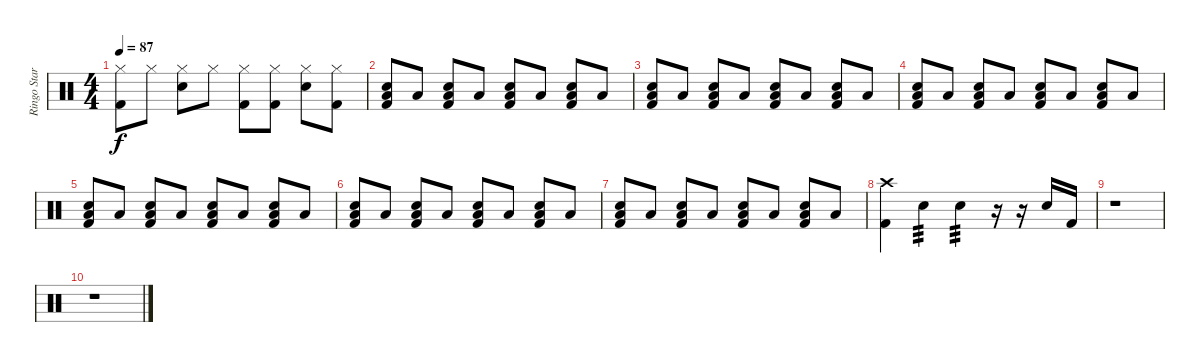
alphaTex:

\track ("Ringo Starr (Batterie)" "Ringo Star") {instrument percussion}
\staff {score}
\articulation defaults
\ts (4 4)
\tempo 87
\clef neutral
\ks c
("Hi-Hat (closed)" "Kick (hit) 2").8{dy f} "Hi-Hat (closed)".8 ("Hi-Hat (closed)" "Snare (hit) 2").8 "Hi-Hat (closed)".8 ("Hi-Hat (closed)" "Kick (hit) 2").8 ("Hi-Hat (closed)" "Kick (hit) 2").8 ("Hi-Hat (closed)" "Snare (hit) 2").8 ("Hi-Hat (closed)" "Kick (hit) 2").8 |
("Snare (hit) 2" "Low Tom (hit)" "Kick (hit) 2").8 "Low Tom (hit)".8 ("Snare (hit) 2" "Low Tom (hit)" "Kick (hit) 2").8 "Low Tom (hit)".8 ("Snare (hit) 2" "Low Tom (hit)" "Kick (hit) 2").8 "Low Tom (hit)".8 ("Snare (hit) 2" "Low Tom (hit)" "Kick (hit) 2").8 "Low Tom (hit)".8 |
("Snare (hit) 2" "Low Tom (hit)" "Kick (hit) 2").8 "Low Tom (hit)".8 ("Snare (hit) 2" "Low Tom (hit)" "Kick (hit) 2").8 "Low Tom (hit)".8 ("Snare (hit) 2" "Low Tom (hit)" "Kick (hit) 2").8 "Low Tom (hit)".8 ("Snare (hit) 2" "Low Tom (hit)" "Kick (hit) 2").8 "Low Tom (hit)".8 |
("Snare (hit) 2" "Low Tom (hit)" "Kick (hit) 2").8 "Low Tom (hit)".8 ("Snare (hit) 2" "Low Tom (hit)" "Kick (hit) 2").8 "Low Tom (hit)".8 ("Snare (hit) 2" "Low Tom (hit)" "Kick (hit) 2").8 "Low Tom (hit)".8 ("Snare (hit) 2" "Low Tom (hit)" "Kick (hit) 2").8 "Low Tom (hit)".8 |
("Snare (hit) 2" "Low Tom (hit)" "Kick (hit) 2").8 "Low Tom (hit)".8 ("Snare (hit) 2" "Low Tom (hit)" "Kick (hit) 2").8 "Low Tom (hit)".8 ("Snare (hit) 2" "Low Tom (hit)" "Kick (hit) 2").8 "Low Tom (hit)".8 ("Snare (hit) 2" "Low Tom (hit)" "Kick (hit) 2").8 "Low Tom (hit)".8 |
("Snare (hit) 2" "Low Tom (hit)" "Kick (hit) 2").8 "Low Tom (hit)".8 ("Snare (hit) 2" "Low Tom (hit)" "Kick (hit) 2").8 "Low Tom (hit)".8 ("Snare (hit) 2" "Low Tom (hit)" "Kick (hit) 2").8 "Low Tom (hit)".8 ("Snare (hit) 2" "Low Tom (hit)" "Kick (hit) 2").8 "Low Tom (hit)".8 |
("Snare (hit) 2" "Low Tom (hit)" "Kick (hit) 2").8 "Low Tom (hit)".8 ("Snare (hit) 2" "Low Tom (hit)" "Kick (hit) 2").8 "Low Tom (hit)".8 ("Snare (hit) 2" "Low Tom (hit)" "Kick (hit) 2").8 "Low Tom (hit)".8 ("Snare (hit) 2" "Low Tom (hit)" "Kick (hit) 2").8 "Low Tom (hit)".8 |
("Crash high (hit)" "Kick (hit) 2").4{volume 8} "Snare (hit) 2".4{tp 3} "Snare (hit) 2".4{tp 3} r.16 r.16 "Snare (hit) 2".16 "Kick (hit) 2".16 |
r.1 |
r.1
